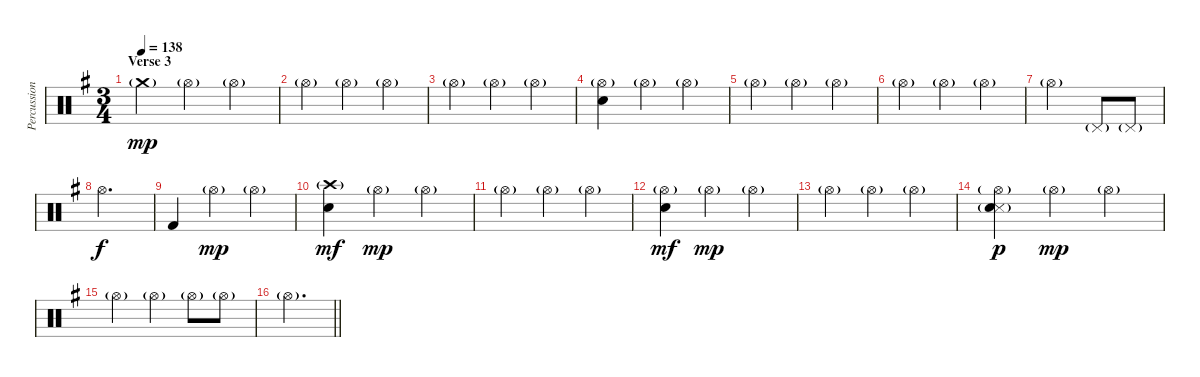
\track ("Percussion (Thomen Stauch)" "Percussion") {instrument percussion}
\staff {score}
\articulation defaults
\ts (3 4)
\section ("" "Verse 3")
\tempo 138
\clef neutral
\ks eminor "Crash medium (hit)"{g}.4{dy mp} "Hi-Hat (open)"{g}.4 "Hi-Hat (open)"{g}.4
|
"Hi-Hat (open)"{g}.4 "Hi-Hat (open)"{g}.4 "Hi-Hat (open)"{g}.4 |
"Hi-Hat (open)"{g}.4 "Hi-Hat (open)"{g}.4 "Hi-Hat (open)"{g}.4 |
("Hi-Hat (open)"{g} "Snare (hit) 2").4 "Hi-Hat (open)"{g}.4 "Hi-Hat (open)"{g}.4 |
"Hi-Hat (open)"{g}.4 "Hi-Hat (open)"{g}.4 "Hi-Hat (open)"{g}.4 |
"Hi-Hat (open)"{g}.4 "Hi-Hat (open)"{g}.4 "Hi-Hat (open)"{g}.4 |
"Hi-Hat (open)"{g}.2 "Pedal Hi-Hat (hit)"{g}.8 "Pedal Hi-Hat (hit)"{g}.8 |
"Hi-Hat (open)".2{d dy f} |
"Kick (hit) 2".4 "Hi-Hat (open)"{g}.4{dy mp} "Hi-Hat (open)"{g}.4 |
("Crash high (hit)"{g} "Snare (hit) 2").4{dy mf} "Hi-Hat (open)"{g}.4{dy mp} "Hi-Hat (open)"{g}.4 |
"Hi-Hat (open)"{g}.4 "Hi-Hat (open)"{g}.4 "Hi-Hat (open)"{g}.4 |
("Hi-Hat (open)"{g} "Snare (hit) 2").4{dy mf} "Hi-Hat (open)"{g}.4{dy mp} "Hi-Hat (open)"{g}.4 |
"Hi-Hat (open)"{g}.4 "Hi-Hat (open)"{g}.4 "Hi-Hat (open)"{g}.4 |
("Hi-Hat (open)"{g} "Snare (side stick) 3" "Snare (hit) 2"{g}).4{dy p} "Hi-Hat (open)"{g}.4{dy mp} "Hi-Hat (open)"{g}.4 |
"Hi-Hat (open)"{g}.4 "Hi-Hat (open)"{g}.4 "Hi-Hat (open)"{g}.8 "Hi-Hat (open)"{g}.8 |
\barLineRight lightlight "Hi-Hat (open)"{g}.2{d}
